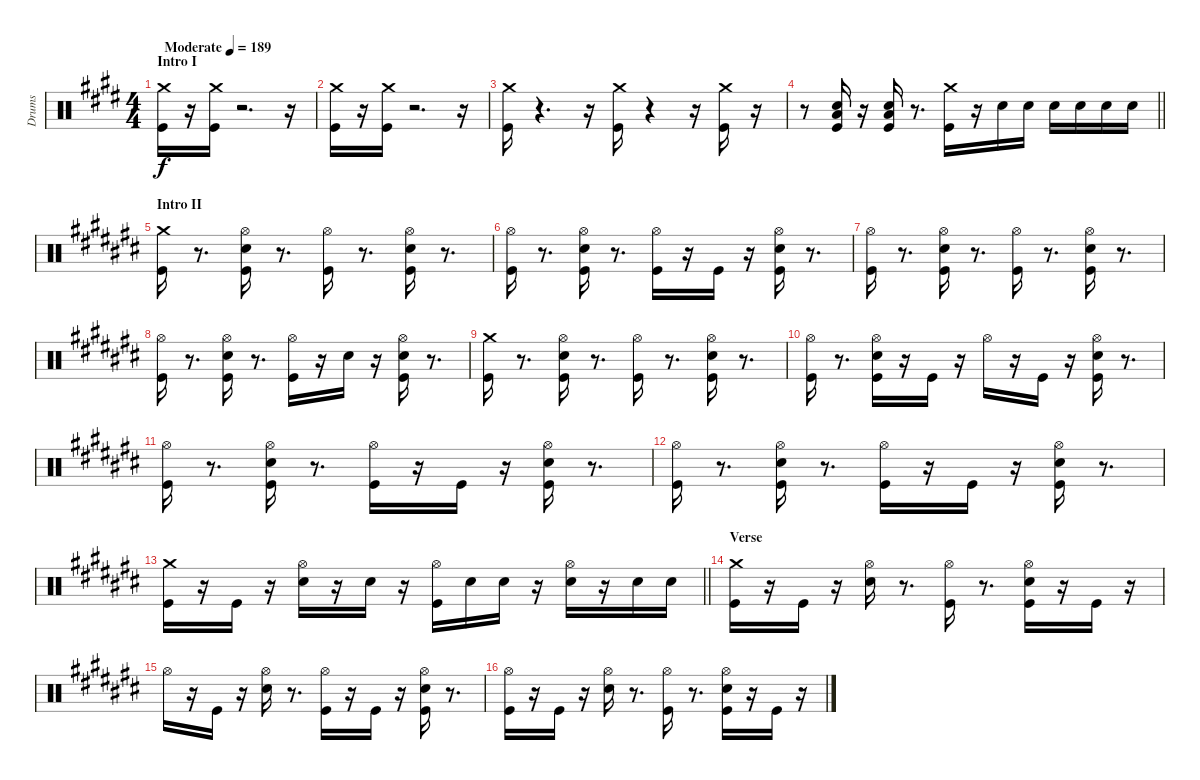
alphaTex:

\track ("Drums" "Drums") {instrument percussion}
\staff {score}
\articulation defaults
\ts (4 4)
\section ("" "Intro I")
\tempo (189 "Moderate")
\clef neutral
\ks e
("Crash medium (hit)" "Kick (hit)").16{dy f} r.16 ("Crash medium (hit)" "Kick (hit)").16 r.2{d} r.16 |
\ks c#minor
("Crash medium (hit)" "Kick (hit)").16 r.16 ("Crash medium (hit)" "Kick (hit)").16 r.2{d} r.16 |
("Crash medium (hit)" "Kick (hit)").16 r.4{d} r.16 ("Crash medium (hit)" "Kick (hit)").16 r.4 r.16 ("Crash medium (hit)" "Kick (hit)").16 r.16 |
\barLineRight lightlight
r.8 ("Electric Snare (hit)" "Low Floor Tom (hit)" "Kick (hit)").16 r.16 ("Electric Snare (hit)" "Low Floor Tom (hit)" "Kick (hit)").16 r.8{d} ("Crash medium (hit)" "Kick (hit)").16 r.16 "Electric Snare (hit)".16 "Electric Snare (hit)".16 "Electric Snare (hit)".16 "Electric Snare (hit)".16 "Electric Snare (hit)".16 "Electric Snare (hit)".16 |
\section ("" "Intro II")
\ks c#
("Crash medium (hit)" "Kick (hit)").16 r.8{d} ("Hi-Hat (open)" "Electric Snare (hit)" "Kick (hit)").16 r.8{d} ("Hi-Hat (open)" "Kick (hit)").16 r.8{d} ("Hi-Hat (open)" "Electric Snare (hit)" "Kick (hit)").16 r.8{d} |
\ks a#minor
("Hi-Hat (open)" "Kick (hit)").16 r.8{d} ("Hi-Hat (open)" "Electric Snare (hit)" "Kick (hit)").16 r.8{d} ("Hi-Hat (open)" "Kick (hit)").16 r.16 "Kick (hit)".16 r.16 ("Hi-Hat (open)" "Electric Snare (hit)" "Kick (hit)").16 r.8{d} |
\ks c#
("Hi-Hat (open)" "Kick (hit)").16 r.8{d} ("Hi-Hat (open)" "Electric Snare (hit)" "Kick (hit)").16 r.8{d} ("Hi-Hat (open)" "Kick (hit)").16 r.8{d} ("Hi-Hat (open)" "Electric Snare (hit)" "Kick (hit)").16 r.8{d} |
\ks a#minor
("Hi-Hat (open)" "Kick (hit)").16 r.8{d} ("Hi-Hat (open)" "Electric Snare (hit)" "Kick (hit)").16 r.8{d} ("Hi-Hat (open)" "Kick (hit)").16 r.16 "Electric Snare (hit)".16 r.16 ("Hi-Hat (open)" "Electric Snare (hit)" "Kick (hit)").16 r.8{d} |
\ks c#
("Crash medium (hit)" "Kick (hit)").16 r.8{d} ("Hi-Hat (open)" "Electric Snare (hit)" "Kick (hit)").16 r.8{d} ("Hi-Hat (open)" "Kick (hit)").16 r.8{d} ("Hi-Hat (open)" "Electric Snare (hit)" "Kick (hit)").16 r.8{d} |
\ks a#minor
("Hi-Hat (open)" "Kick (hit)").16 r.8{d} ("Hi-Hat (open)" "Electric Snare (hit)" "Kick (hit)").16 r.16 "Kick (hit)".16 r.16 "Hi-Hat (open)".16 r.16 "Kick (hit)".16 r.16 ("Hi-Hat (open)" "Electric Snare (hit)" "Kick (hit)").16 r.8{d} |
("Hi-Hat (open)" "Kick (hit)").16 r.8{d} ("Hi-Hat (open)" "Electric Snare (hit)" "Kick (hit)").16 r.8{d} ("Hi-Hat (open)" "Kick (hit)").16 r.16 "Kick (hit)".16 r.16 ("Hi-Hat (open)" "Electric Snare (hit)" "Kick (hit)").16 r.8{d} |
("Hi-Hat (open)" "Kick (hit)").16 r.8{d} ("Hi-Hat (open)" "Electric Snare (hit)" "Kick (hit)").16 r.8{d} ("Hi-Hat (open)" "Kick (hit)").16 r.16 "Kick (hit)".16 r.16 ("Hi-Hat (open)" "Electric Snare (hit)" "Kick (hit)").16 r.8{d} |
\barLineRight lightlight
("Crash medium (hit)" "Kick (hit)").16 r.16 "Kick (hit)".16 r.16 ("Hi-Hat (open)" "Electric Snare (hit)").16 r.16 "Electric Snare (hit)".16 r.16 ("Hi-Hat (open)" "Kick (hit)").16 "Electric Snare (hit)".16 "Electric Snare (hit)".16 r.16 ("Hi-Hat (open)" "Electric Snare (hit)").16 r.16 "Electric Snare (hit)".16 "Electric Snare (hit)".16 |
\section ("" "Verse")
\ks c#
("Crash medium (hit)" "Kick (hit)").16 r.16 "Kick (hit)".16 r.16 ("Hi-Hat (open)" "Electric Snare (hit)").16 r.8{d} ("Hi-Hat (open)" "Kick (hit)").16 r.8{d} ("Hi-Hat (open)" "Electric Snare (hit)" "Kick (hit)").16 r.16 "Kick (hit)".16 r.16 |
\ks a#minor "Hi-Hat (open)".16
r.16 "Kick (hit)".16 r.16 ("Hi-Hat (open)" "Electric Snare (hit)").16 r.8{d} ("Hi-Hat (open)" "Kick (hit)").16 r.16 "Kick (hit)".16 r.16 ("Hi-Hat (open)" "Electric Snare (hit)" "Kick (hit)").16 r.8{d} |
("Hi-Hat (open)" "Kick (hit)").16 r.16 "Kick (hit)".16 r.16 ("Hi-Hat (open)" "Electric Snare (hit)").16 r.8{d} ("Hi-Hat (open)" "Kick (hit)").16 r.8{d} ("Hi-Hat (open)" "Electric Snare (hit)" "Kick (hit)").16 r.16 "Kick (hit)".16 r.16
